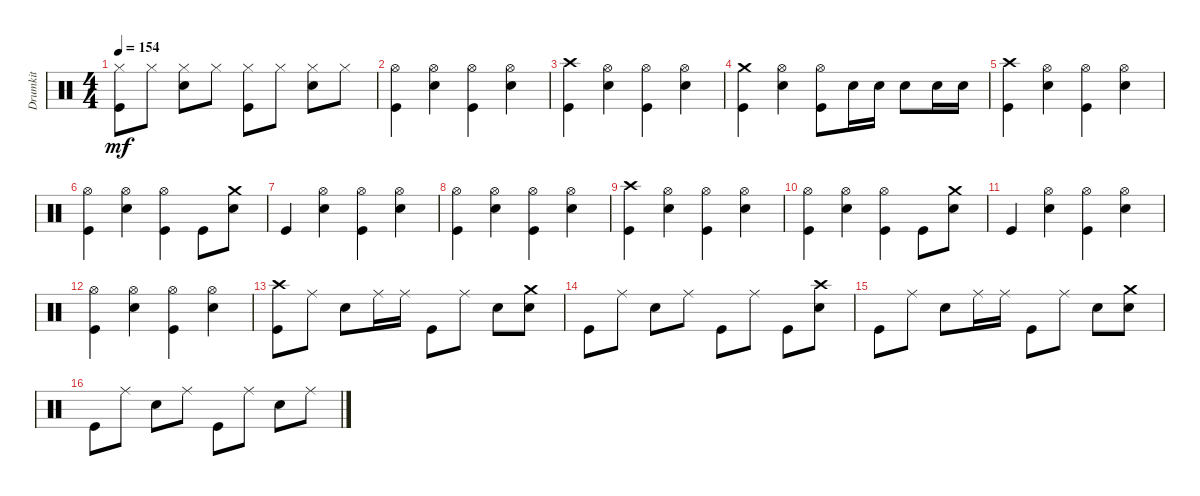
\track ("Drumkit" "Drumkit") {instrument percussion}
\staff {score}
\articulation defaults
\ts (4 4)
\tempo 154
\clef neutral
\ks c
("Kick (hit)" "Hi-Hat (closed)").8{dy mf} "Hi-Hat (closed)".8 ("Snare (hit) 2" "Hi-Hat (closed)").8 "Hi-Hat (closed)".8 ("Kick (hit)" "Hi-Hat (closed)").8 "Hi-Hat (closed)".8 ("Snare (hit) 2" "Hi-Hat (closed)").8 "Hi-Hat (closed)".8 |
("Kick (hit)" "Hi-Hat (open)").4 ("Snare (hit) 2" "Hi-Hat (open)").4 ("Kick (hit)" "Hi-Hat (open)").4 ("Snare (hit) 2" "Hi-Hat (open)").4 |
("Kick (hit)" "Crash high (hit)").4 ("Snare (hit) 2" "Hi-Hat (open)").4 ("Kick (hit)" "Hi-Hat (open)").4 ("Snare (hit) 2" "Hi-Hat (open)").4 |
("Kick (hit)" "Crash medium (hit)").4 ("Snare (hit) 2" "Hi-Hat (open)").4 ("Kick (hit)" "Hi-Hat (open)").8 "Snare (hit) 2".16 "Snare (hit) 2".16 "Snare (hit) 2".8 "Snare (hit) 2".16 "Snare (hit) 2".16 |
("Kick (hit)" "Crash high (hit)").4 ("Snare (hit) 2" "Hi-Hat (open)").4 ("Kick (hit)" "Hi-Hat (open)").4 ("Snare (hit) 2" "Hi-Hat (open)").4 |
("Kick (hit)" "Hi-Hat (open)").4 ("Snare (hit) 2" "Hi-Hat (open)").4 ("Kick (hit)" "Hi-Hat (open)").4 "Kick (hit)".8 ("Snare (hit) 2" "Crash medium (hit)").8 |
"Kick (hit)".4 ("Snare (hit) 2" "Hi-Hat (open)").4 ("Kick (hit)" "Hi-Hat (open)").4 ("Snare (hit) 2" "Hi-Hat (open)").4 |
("Kick (hit)" "Hi-Hat (open)").4 ("Snare (hit) 2" "Hi-Hat (open)").4 ("Kick (hit)" "Hi-Hat (open)").4 ("Snare (hit) 2" "Hi-Hat (open)").4 |
("Kick (hit)" "Crash high (hit)").4 ("Snare (hit) 2" "Hi-Hat (open)").4 ("Kick (hit)" "Hi-Hat (open)").4 ("Snare (hit) 2" "Hi-Hat (open)").4 |
("Kick (hit)" "Hi-Hat (open)").4 ("Snare (hit) 2" "Hi-Hat (open)").4 ("Kick (hit)" "Hi-Hat (open)").4 "Kick (hit)".8 ("Snare (hit) 2" "Crash medium (hit)").8 |
"Kick (hit)".4 ("Snare (hit) 2" "Hi-Hat (open)").4 ("Kick (hit)" "Hi-Hat (open)").4 ("Snare (hit) 2" "Hi-Hat (open)").4 |
("Kick (hit)" "Hi-Hat (open)").4 ("Snare (hit) 2" "Hi-Hat (open)").4 ("Kick (hit)" "Hi-Hat (open)").4 ("Snare (hit) 2" "Hi-Hat (open)").4 |
("Kick (hit)" "Crash high (hit)").8 "Ride (middle)".8 "Snare (hit) 2".8 "Ride (middle)".16 "Ride (middle)".16 "Kick (hit)".8 "Ride (middle)".8 "Snare (hit) 2".8 ("Snare (hit) 2" "Crash medium (hit)").8 |
"Kick (hit)".8 "Ride (middle)".8 "Snare (hit) 2".8 "Ride (middle)".8 "Kick (hit)".8 "Ride (middle)".8 "Kick (hit)".8 ("Snare (hit) 2" "Crash high (hit)").8 |
"Kick (hit)".8 "Ride (middle)".8 "Snare (hit) 2".8 "Ride (middle)".16 "Ride (middle)".16 "Kick (hit)".8 "Ride (middle)".8 "Snare (hit) 2".8 ("Snare (hit) 2" "Crash medium (hit)").8 |
"Kick (hit)".8 "Ride (middle)".8 "Snare (hit) 2".8 "Ride (middle)".8 "Kick (hit)".8 "Ride (middle)".8 "Snare (hit) 2".8 "Ride (middle)".8
